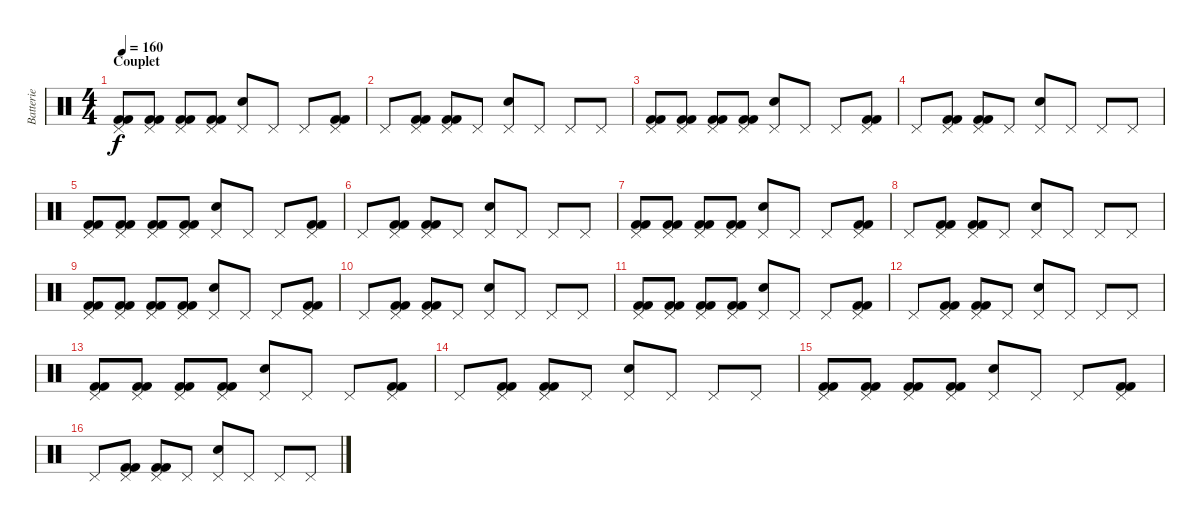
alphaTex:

\track ("Batterie" "Batterie") {instrument percussion}
\staff {score}
\articulation defaults
\ts (4 4)
\section ("" "Couplet")
\tempo 160
\clef neutral
\ks c
("Pedal Hi-Hat (hit)" "Kick (hit) 2" "Kick (hit) 2").8{dy f} ("Pedal Hi-Hat (hit)" "Kick (hit) 2" "Kick (hit) 2").8 ("Pedal Hi-Hat (hit)" "Kick (hit) 2" "Kick (hit) 2").8 ("Pedal Hi-Hat (hit)" "Kick (hit) 2" "Kick (hit) 2").8 ("Pedal Hi-Hat (hit)" "Electric Snare (hit)").8 "Pedal Hi-Hat (hit)".8 "Pedal Hi-Hat (hit)".8 ("Pedal Hi-Hat (hit)" "Kick (hit) 2" "Kick (hit) 2").8 |
"Pedal Hi-Hat (hit)".8 ("Pedal Hi-Hat (hit)" "Kick (hit) 2" "Kick (hit) 2").8 ("Pedal Hi-Hat (hit)" "Kick (hit) 2" "Kick (hit) 2").8 "Pedal Hi-Hat (hit)".8 ("Pedal Hi-Hat (hit)" "Electric Snare (hit)").8 "Pedal Hi-Hat (hit)".8 "Pedal Hi-Hat (hit)".8 "Pedal Hi-Hat (hit)".8 |
("Pedal Hi-Hat (hit)" "Kick (hit) 2" "Kick (hit) 2").8 ("Pedal Hi-Hat (hit)" "Kick (hit) 2" "Kick (hit) 2").8 ("Pedal Hi-Hat (hit)" "Kick (hit) 2" "Kick (hit) 2").8 ("Pedal Hi-Hat (hit)" "Kick (hit) 2" "Kick (hit) 2").8 ("Pedal Hi-Hat (hit)" "Electric Snare (hit)").8 "Pedal Hi-Hat (hit)".8 "Pedal Hi-Hat (hit)".8 ("Pedal Hi-Hat (hit)" "Kick (hit) 2" "Kick (hit) 2").8 |
"Pedal Hi-Hat (hit)".8 ("Pedal Hi-Hat (hit)" "Kick (hit) 2" "Kick (hit) 2").8 ("Pedal Hi-Hat (hit)" "Kick (hit) 2" "Kick (hit) 2").8 "Pedal Hi-Hat (hit)".8 ("Pedal Hi-Hat (hit)" "Electric Snare (hit)").8 "Pedal Hi-Hat (hit)".8 "Pedal Hi-Hat (hit)".8 "Pedal Hi-Hat (hit)".8 |
("Pedal Hi-Hat (hit)" "Kick (hit) 2" "Kick (hit) 2").8 ("Pedal Hi-Hat (hit)" "Kick (hit) 2" "Kick (hit) 2").8 ("Pedal Hi-Hat (hit)" "Kick (hit) 2" "Kick (hit) 2").8 ("Pedal Hi-Hat (hit)" "Kick (hit) 2" "Kick (hit) 2").8 ("Pedal Hi-Hat (hit)" "Electric Snare (hit)").8 "Pedal Hi-Hat (hit)".8 "Pedal Hi-Hat (hit)".8 ("Pedal Hi-Hat (hit)" "Kick (hit) 2" "Kick (hit) 2").8 |
"Pedal Hi-Hat (hit)".8 ("Pedal Hi-Hat (hit)" "Kick (hit) 2" "Kick (hit) 2").8 ("Pedal Hi-Hat (hit)" "Kick (hit) 2" "Kick (hit) 2").8 "Pedal Hi-Hat (hit)".8 ("Pedal Hi-Hat (hit)" "Electric Snare (hit)").8 "Pedal Hi-Hat (hit)".8 "Pedal Hi-Hat (hit)".8 "Pedal Hi-Hat (hit)".8 |
("Pedal Hi-Hat (hit)" "Kick (hit) 2" "Kick (hit) 2").8 ("Pedal Hi-Hat (hit)" "Kick (hit) 2" "Kick (hit) 2").8 ("Pedal Hi-Hat (hit)" "Kick (hit) 2" "Kick (hit) 2").8 ("Pedal Hi-Hat (hit)" "Kick (hit) 2" "Kick (hit) 2").8 ("Pedal Hi-Hat (hit)" "Electric Snare (hit)").8 "Pedal Hi-Hat (hit)".8 "Pedal Hi-Hat (hit)".8 ("Pedal Hi-Hat (hit)" "Kick (hit) 2" "Kick (hit) 2").8 |
"Pedal Hi-Hat (hit)".8 ("Pedal Hi-Hat (hit)" "Kick (hit) 2" "Kick (hit) 2").8 ("Pedal Hi-Hat (hit)" "Kick (hit) 2" "Kick (hit) 2").8 "Pedal Hi-Hat (hit)".8 ("Pedal Hi-Hat (hit)" "Electric Snare (hit)").8 "Pedal Hi-Hat (hit)".8 "Pedal Hi-Hat (hit)".8 "Pedal Hi-Hat (hit)".8 |
("Pedal Hi-Hat (hit)" "Kick (hit) 2" "Kick (hit) 2").8 ("Pedal Hi-Hat (hit)" "Kick (hit) 2" "Kick (hit) 2").8 ("Pedal Hi-Hat (hit)" "Kick (hit) 2" "Kick (hit) 2").8 ("Pedal Hi-Hat (hit)" "Kick (hit) 2" "Kick (hit) 2").8 ("Pedal Hi-Hat (hit)" "Electric Snare (hit)").8 "Pedal Hi-Hat (hit)".8 "Pedal Hi-Hat (hit)".8 ("Pedal Hi-Hat (hit)" "Kick (hit) 2" "Kick (hit) 2").8 |
"Pedal Hi-Hat (hit)".8 ("Pedal Hi-Hat (hit)" "Kick (hit) 2" "Kick (hit) 2").8 ("Pedal Hi-Hat (hit)" "Kick (hit) 2" "Kick (hit) 2").8 "Pedal Hi-Hat (hit)".8 ("Pedal Hi-Hat (hit)" "Electric Snare (hit)").8 "Pedal Hi-Hat (hit)".8 "Pedal Hi-Hat (hit)".8 "Pedal Hi-Hat (hit)".8 |
("Pedal Hi-Hat (hit)" "Kick (hit) 2" "Kick (hit) 2").8 ("Pedal Hi-Hat (hit)" "Kick (hit) 2" "Kick (hit) 2").8 ("Pedal Hi-Hat (hit)" "Kick (hit) 2" "Kick (hit) 2").8 ("Pedal Hi-Hat (hit)" "Kick (hit) 2" "Kick (hit) 2").8 ("Pedal Hi-Hat (hit)" "Electric Snare (hit)").8 "Pedal Hi-Hat (hit)".8 "Pedal Hi-Hat (hit)".8 ("Pedal Hi-Hat (hit)" "Kick (hit) 2" "Kick (hit) 2").8 |
"Pedal Hi-Hat (hit)".8 ("Pedal Hi-Hat (hit)" "Kick (hit) 2" "Kick (hit) 2").8 ("Pedal Hi-Hat (hit)" "Kick (hit) 2" "Kick (hit) 2").8 "Pedal Hi-Hat (hit)".8 ("Pedal Hi-Hat (hit)" "Electric Snare (hit)").8 "Pedal Hi-Hat (hit)".8 "Pedal Hi-Hat (hit)".8 "Pedal Hi-Hat (hit)".8 |
("Pedal Hi-Hat (hit)" "Kick (hit) 2" "Kick (hit) 2").8 ("Pedal Hi-Hat (hit)" "Kick (hit) 2" "Kick (hit) 2").8 ("Pedal Hi-Hat (hit)" "Kick (hit) 2" "Kick (hit) 2").8 ("Pedal Hi-Hat (hit)" "Kick (hit) 2" "Kick (hit) 2").8 ("Pedal Hi-Hat (hit)" "Electric Snare (hit)").8 "Pedal Hi-Hat (hit)".8 "Pedal Hi-Hat (hit)".8 ("Pedal Hi-Hat (hit)" "Kick (hit) 2" "Kick (hit) 2").8 |
"Pedal Hi-Hat (hit)".8 ("Pedal Hi-Hat (hit)" "Kick (hit) 2" "Kick (hit) 2").8 ("Pedal Hi-Hat (hit)" "Kick (hit) 2" "Kick (hit) 2").8 "Pedal Hi-Hat (hit)".8 ("Pedal Hi-Hat (hit)" "Electric Snare (hit)").8 "Pedal Hi-Hat (hit)".8 "Pedal Hi-Hat (hit)".8 "Pedal Hi-Hat (hit)".8 |
("Pedal Hi-Hat (hit)" "Kick (hit) 2" "Kick (hit) 2").8 ("Pedal Hi-Hat (hit)" "Kick (hit) 2" "Kick (hit) 2").8 ("Pedal Hi-Hat (hit)" "Kick (hit) 2" "Kick (hit) 2").8 ("Pedal Hi-Hat (hit)" "Kick (hit) 2" "Kick (hit) 2").8 ("Pedal Hi-Hat (hit)" "Electric Snare (hit)").8 "Pedal Hi-Hat (hit)".8 "Pedal Hi-Hat (hit)".8 ("Pedal Hi-Hat (hit)" "Kick (hit) 2" "Kick (hit) 2").8 |
"Pedal Hi-Hat (hit)".8 ("Pedal Hi-Hat (hit)" "Kick (hit) 2" "Kick (hit) 2").8 ("Pedal Hi-Hat (hit)" "Kick (hit) 2" "Kick (hit) 2").8 "Pedal Hi-Hat (hit)".8 ("Pedal Hi-Hat (hit)" "Electric Snare (hit)").8 "Pedal Hi-Hat (hit)".8 "Pedal Hi-Hat (hit)".8 "Pedal Hi-Hat (hit)".8
